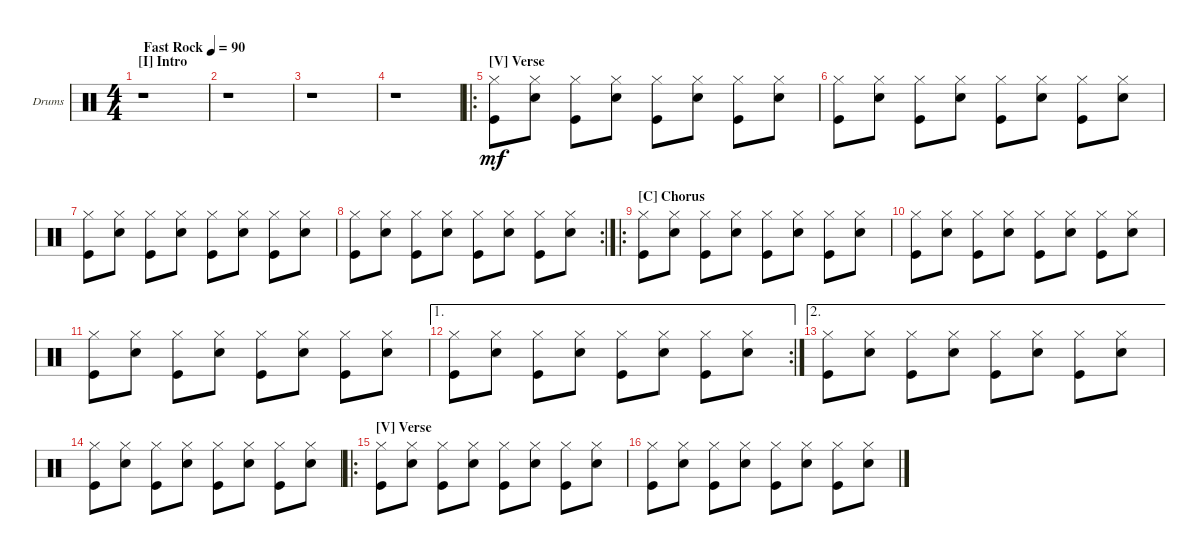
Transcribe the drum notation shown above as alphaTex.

\defaultSystemsLayout 4
\bracketExtendMode groupsimilarinstruments
\firstSystemTrackNameOrientation horizontal
\otherSystemsTrackNameOrientation horizontal
\track ("Drumkit" "Drums") {instrument percussion}
\staff {score}
\articulation defaults
\ts (4 4)
\section ("I" "Intro")
\tempo (90 "Fast Rock")
\clef neutral
\ks c
r.1{dy mf} |
r.1 |
r.1 |
r.1 |
\ro
\section ("V" "Verse")
("Hi-Hat (closed)" "Kick (hit)").8 ("Hi-Hat (closed)" "Snare (hit) 2").8 ("Hi-Hat (closed)" "Kick (hit)").8 ("Hi-Hat (closed)" "Snare (hit) 2").8 ("Hi-Hat (closed)" "Kick (hit)").8 ("Hi-Hat (closed)" "Snare (hit) 2").8 ("Hi-Hat (closed)" "Kick (hit)").8 ("Hi-Hat (closed)" "Snare (hit) 2").8 |
("Hi-Hat (closed)" "Kick (hit)").8 ("Hi-Hat (closed)" "Snare (hit) 2").8 ("Hi-Hat (closed)" "Kick (hit)").8 ("Hi-Hat (closed)" "Snare (hit) 2").8 ("Hi-Hat (closed)" "Kick (hit)").8 ("Hi-Hat (closed)" "Snare (hit) 2").8 ("Hi-Hat (closed)" "Kick (hit)").8 ("Hi-Hat (closed)" "Snare (hit) 2").8 |
("Hi-Hat (closed)" "Kick (hit)").8 ("Hi-Hat (closed)" "Snare (hit) 2").8 ("Hi-Hat (closed)" "Kick (hit)").8 ("Hi-Hat (closed)" "Snare (hit) 2").8 ("Hi-Hat (closed)" "Kick (hit)").8 ("Hi-Hat (closed)" "Snare (hit) 2").8 ("Hi-Hat (closed)" "Kick (hit)").8 ("Hi-Hat (closed)" "Snare (hit) 2").8 |
\rc 2
("Hi-Hat (closed)" "Kick (hit)").8 ("Hi-Hat (closed)" "Snare (hit) 2").8 ("Hi-Hat (closed)" "Kick (hit)").8 ("Hi-Hat (closed)" "Snare (hit) 2").8 ("Hi-Hat (closed)" "Kick (hit)").8 ("Hi-Hat (closed)" "Snare (hit) 2").8 ("Hi-Hat (closed)" "Kick (hit)").8 ("Hi-Hat (closed)" "Snare (hit) 2").8 |
\ro
\section ("C" "Chorus")
("Hi-Hat (closed)" "Kick (hit)").8 ("Hi-Hat (closed)" "Snare (hit) 2").8 ("Hi-Hat (closed)" "Kick (hit)").8 ("Hi-Hat (closed)" "Snare (hit) 2").8 ("Hi-Hat (closed)" "Kick (hit)").8 ("Hi-Hat (closed)" "Snare (hit) 2").8 ("Hi-Hat (closed)" "Kick (hit)").8 ("Hi-Hat (closed)" "Snare (hit) 2").8 |
("Hi-Hat (closed)" "Kick (hit)").8 ("Hi-Hat (closed)" "Snare (hit) 2").8 ("Hi-Hat (closed)" "Kick (hit)").8 ("Hi-Hat (closed)" "Snare (hit) 2").8 ("Hi-Hat (closed)" "Kick (hit)").8 ("Hi-Hat (closed)" "Snare (hit) 2").8 ("Hi-Hat (closed)" "Kick (hit)").8 ("Hi-Hat (closed)" "Snare (hit) 2").8 |
("Hi-Hat (closed)" "Kick (hit)").8 ("Hi-Hat (closed)" "Snare (hit) 2").8 ("Hi-Hat (closed)" "Kick (hit)").8 ("Hi-Hat (closed)" "Snare (hit) 2").8 ("Hi-Hat (closed)" "Kick (hit)").8 ("Hi-Hat (closed)" "Snare (hit) 2").8 ("Hi-Hat (closed)" "Kick (hit)").8 ("Hi-Hat (closed)" "Snare (hit) 2").8 |
\ae 1
\rc 2
("Hi-Hat (closed)" "Kick (hit)").8 ("Hi-Hat (closed)" "Snare (hit) 2").8 ("Hi-Hat (closed)" "Kick (hit)").8 ("Hi-Hat (closed)" "Snare (hit) 2").8 ("Hi-Hat (closed)" "Kick (hit)").8 ("Hi-Hat (closed)" "Snare (hit) 2").8 ("Hi-Hat (closed)" "Kick (hit)").8 ("Hi-Hat (closed)" "Snare (hit) 2").8 |
\ae 2
("Hi-Hat (closed)" "Kick (hit)").8 ("Hi-Hat (closed)" "Snare (hit) 2").8 ("Hi-Hat (closed)" "Kick (hit)").8 ("Hi-Hat (closed)" "Snare (hit) 2").8 ("Hi-Hat (closed)" "Kick (hit)").8 ("Hi-Hat (closed)" "Snare (hit) 2").8 ("Hi-Hat (closed)" "Kick (hit)").8 ("Hi-Hat (closed)" "Snare (hit) 2").8 |
("Hi-Hat (closed)" "Kick (hit)").8 ("Hi-Hat (closed)" "Snare (hit) 2").8 ("Hi-Hat (closed)" "Kick (hit)").8 ("Hi-Hat (closed)" "Snare (hit) 2").8 ("Hi-Hat (closed)" "Kick (hit)").8 ("Hi-Hat (closed)" "Snare (hit) 2").8 ("Hi-Hat (closed)" "Kick (hit)").8 ("Hi-Hat (closed)" "Snare (hit) 2").8 |
\ro
\section ("V" "Verse")
("Hi-Hat (closed)" "Kick (hit)").8 ("Hi-Hat (closed)" "Snare (hit) 2").8 ("Hi-Hat (closed)" "Kick (hit)").8 ("Hi-Hat (closed)" "Snare (hit) 2").8 ("Hi-Hat (closed)" "Kick (hit)").8 ("Hi-Hat (closed)" "Snare (hit) 2").8 ("Hi-Hat (closed)" "Kick (hit)").8 ("Hi-Hat (closed)" "Snare (hit) 2").8 |
("Hi-Hat (closed)" "Kick (hit)").8 ("Hi-Hat (closed)" "Snare (hit) 2").8 ("Hi-Hat (closed)" "Kick (hit)").8 ("Hi-Hat (closed)" "Snare (hit) 2").8 ("Hi-Hat (closed)" "Kick (hit)").8 ("Hi-Hat (closed)" "Snare (hit) 2").8 ("Hi-Hat (closed)" "Kick (hit)").8 ("Hi-Hat (closed)" "Snare (hit) 2").8
